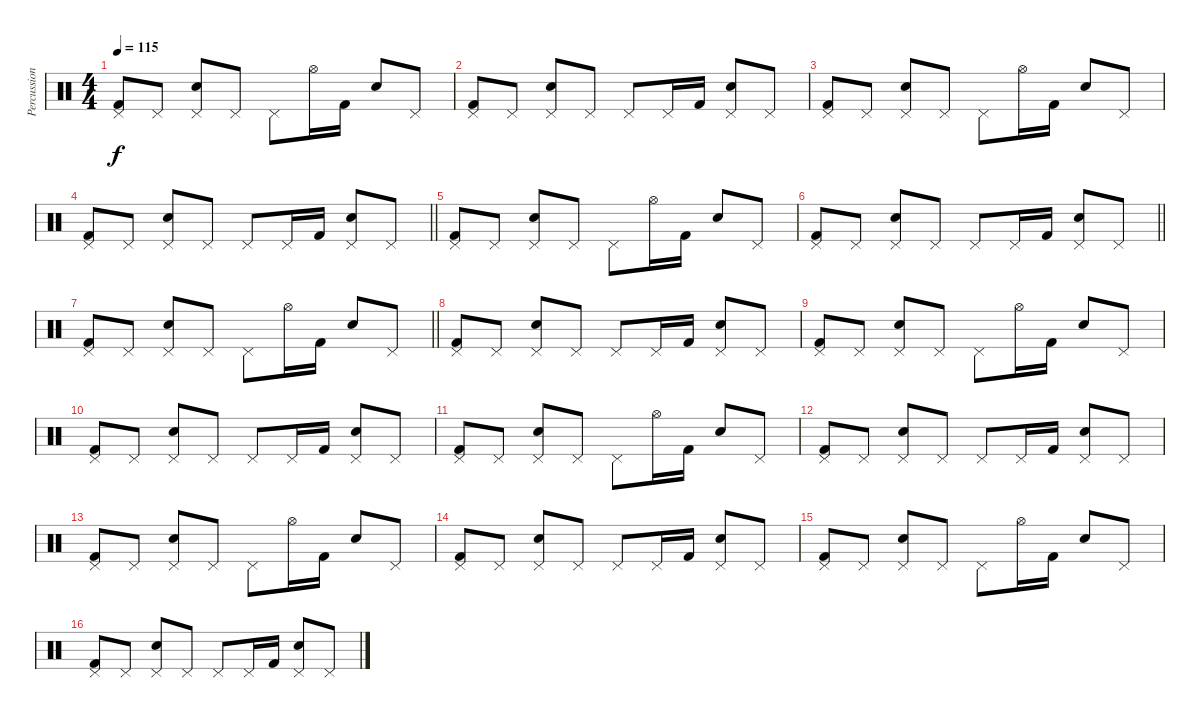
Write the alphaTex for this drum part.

\track ("Percussions" "Percussion") {instrument percussion}
\staff {score}
\articulation defaults
\ts (4 4)
\tempo 115
\clef neutral
\ks c
("Pedal Hi-Hat (hit)" "Kick (hit) 2").8{dy f} "Pedal Hi-Hat (hit)".8 ("Pedal Hi-Hat (hit)" "Snare (hit) 2").8 "Pedal Hi-Hat (hit)".8 "Pedal Hi-Hat (hit)".8 "Hi-Hat (open)".16 "Kick (hit) 2".16 "Snare (hit) 2".8 "Pedal Hi-Hat (hit)".8 |
("Pedal Hi-Hat (hit)" "Kick (hit) 2").8 "Pedal Hi-Hat (hit)".8 ("Pedal Hi-Hat (hit)" "Snare (hit) 2").8 "Pedal Hi-Hat (hit)".8 "Pedal Hi-Hat (hit)".8 "Pedal Hi-Hat (hit)".16 "Kick (hit) 2".16 ("Pedal Hi-Hat (hit)" "Snare (hit) 2").8 "Pedal Hi-Hat (hit)".8 |
("Pedal Hi-Hat (hit)" "Kick (hit) 2").8 "Pedal Hi-Hat (hit)".8 ("Pedal Hi-Hat (hit)" "Snare (hit) 2").8 "Pedal Hi-Hat (hit)".8 "Pedal Hi-Hat (hit)".8 "Hi-Hat (open)".16 "Kick (hit) 2".16 "Snare (hit) 2".8 "Pedal Hi-Hat (hit)".8 |
\barLineRight lightlight
("Pedal Hi-Hat (hit)" "Kick (hit) 2").8 "Pedal Hi-Hat (hit)".8 ("Pedal Hi-Hat (hit)" "Snare (hit) 2").8 "Pedal Hi-Hat (hit)".8 "Pedal Hi-Hat (hit)".8 "Pedal Hi-Hat (hit)".16 "Kick (hit) 2".16 ("Pedal Hi-Hat (hit)" "Snare (hit) 2").8 "Pedal Hi-Hat (hit)".8 |
("Pedal Hi-Hat (hit)" "Kick (hit) 2").8 "Pedal Hi-Hat (hit)".8 ("Pedal Hi-Hat (hit)" "Snare (hit) 2").8 "Pedal Hi-Hat (hit)".8 "Pedal Hi-Hat (hit)".8 "Hi-Hat (open)".16 "Kick (hit) 2".16 "Snare (hit) 2".8 "Pedal Hi-Hat (hit)".8 |
\barLineRight lightlight
("Pedal Hi-Hat (hit)" "Kick (hit) 2").8 "Pedal Hi-Hat (hit)".8 ("Pedal Hi-Hat (hit)" "Snare (hit) 2").8 "Pedal Hi-Hat (hit)".8 "Pedal Hi-Hat (hit)".8 "Pedal Hi-Hat (hit)".16 "Kick (hit) 2".16 ("Pedal Hi-Hat (hit)" "Snare (hit) 2").8 "Pedal Hi-Hat (hit)".8 |
\barLineRight lightlight
("Pedal Hi-Hat (hit)" "Kick (hit) 2").8 "Pedal Hi-Hat (hit)".8 ("Pedal Hi-Hat (hit)" "Snare (hit) 2").8 "Pedal Hi-Hat (hit)".8 "Pedal Hi-Hat (hit)".8 "Hi-Hat (open)".16 "Kick (hit) 2".16 "Snare (hit) 2".8 "Pedal Hi-Hat (hit)".8 |
("Pedal Hi-Hat (hit)" "Kick (hit) 2").8 "Pedal Hi-Hat (hit)".8 ("Pedal Hi-Hat (hit)" "Snare (hit) 2").8 "Pedal Hi-Hat (hit)".8 "Pedal Hi-Hat (hit)".8 "Pedal Hi-Hat (hit)".16 "Kick (hit) 2".16 ("Pedal Hi-Hat (hit)" "Snare (hit) 2").8 "Pedal Hi-Hat (hit)".8 |
("Pedal Hi-Hat (hit)" "Kick (hit) 2").8 "Pedal Hi-Hat (hit)".8 ("Pedal Hi-Hat (hit)" "Snare (hit) 2").8 "Pedal Hi-Hat (hit)".8 "Pedal Hi-Hat (hit)".8 "Hi-Hat (open)".16 "Kick (hit) 2".16 "Snare (hit) 2".8 "Pedal Hi-Hat (hit)".8 |
("Pedal Hi-Hat (hit)" "Kick (hit) 2").8 "Pedal Hi-Hat (hit)".8 ("Pedal Hi-Hat (hit)" "Snare (hit) 2").8 "Pedal Hi-Hat (hit)".8 "Pedal Hi-Hat (hit)".8 "Pedal Hi-Hat (hit)".16 "Kick (hit) 2".16 ("Pedal Hi-Hat (hit)" "Snare (hit) 2").8 "Pedal Hi-Hat (hit)".8 |
("Pedal Hi-Hat (hit)" "Kick (hit) 2").8 "Pedal Hi-Hat (hit)".8 ("Pedal Hi-Hat (hit)" "Snare (hit) 2").8 "Pedal Hi-Hat (hit)".8 "Pedal Hi-Hat (hit)".8 "Hi-Hat (open)".16 "Kick (hit) 2".16 "Snare (hit) 2".8 "Pedal Hi-Hat (hit)".8 |
("Pedal Hi-Hat (hit)" "Kick (hit) 2").8 "Pedal Hi-Hat (hit)".8 ("Pedal Hi-Hat (hit)" "Snare (hit) 2").8 "Pedal Hi-Hat (hit)".8 "Pedal Hi-Hat (hit)".8 "Pedal Hi-Hat (hit)".16 "Kick (hit) 2".16 ("Pedal Hi-Hat (hit)" "Snare (hit) 2").8 "Pedal Hi-Hat (hit)".8 |
("Pedal Hi-Hat (hit)" "Kick (hit) 2").8 "Pedal Hi-Hat (hit)".8 ("Pedal Hi-Hat (hit)" "Snare (hit) 2").8 "Pedal Hi-Hat (hit)".8 "Pedal Hi-Hat (hit)".8 "Hi-Hat (open)".16 "Kick (hit) 2".16 "Snare (hit) 2".8 "Pedal Hi-Hat (hit)".8 |
("Pedal Hi-Hat (hit)" "Kick (hit) 2").8 "Pedal Hi-Hat (hit)".8 ("Pedal Hi-Hat (hit)" "Snare (hit) 2").8 "Pedal Hi-Hat (hit)".8 "Pedal Hi-Hat (hit)".8 "Pedal Hi-Hat (hit)".16 "Kick (hit) 2".16 ("Pedal Hi-Hat (hit)" "Snare (hit) 2").8 "Pedal Hi-Hat (hit)".8 |
("Pedal Hi-Hat (hit)" "Kick (hit) 2").8 "Pedal Hi-Hat (hit)".8 ("Pedal Hi-Hat (hit)" "Snare (hit) 2").8 "Pedal Hi-Hat (hit)".8 "Pedal Hi-Hat (hit)".8 "Hi-Hat (open)".16 "Kick (hit) 2".16 "Snare (hit) 2".8 "Pedal Hi-Hat (hit)".8 |
("Pedal Hi-Hat (hit)" "Kick (hit) 2").8 "Pedal Hi-Hat (hit)".8 ("Pedal Hi-Hat (hit)" "Snare (hit) 2").8 "Pedal Hi-Hat (hit)".8 "Pedal Hi-Hat (hit)".8 "Pedal Hi-Hat (hit)".16 "Kick (hit) 2".16 ("Pedal Hi-Hat (hit)" "Snare (hit) 2").8 "Pedal Hi-Hat (hit)".8
